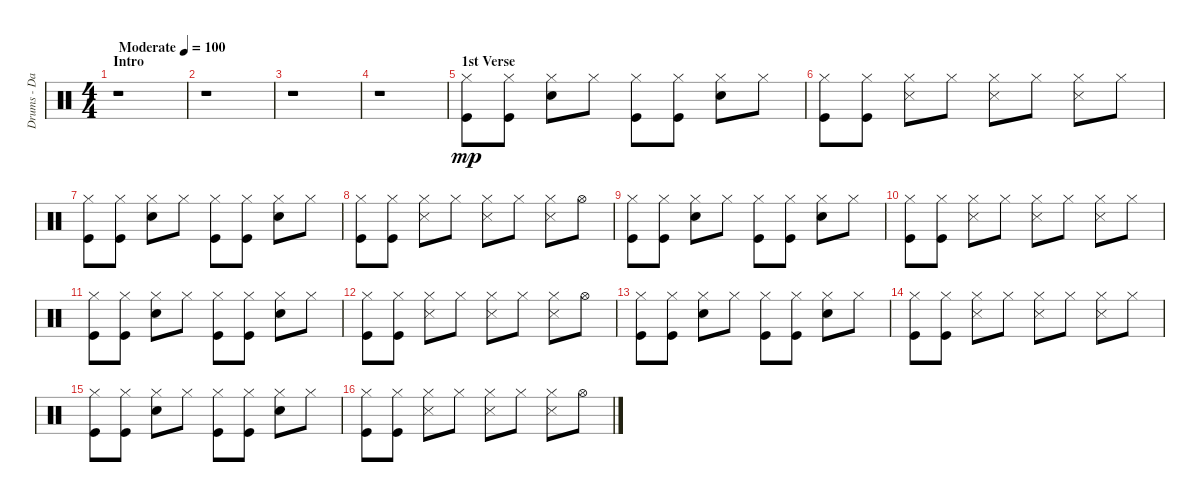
\track ("Drums - Dave Grohl" "Drums - Da") {instrument percussion}
\staff {score}
\articulation defaults
\ts (4 4)
\section ("" "Intro")
\tempo (100 "Moderate")
\clef neutral
\ks c
r.1{dy mp} |
r.1 |
r.1 |
r.1 |
\section ("" "1st Verse")
("Kick (hit)" "Hi-Hat (closed)").8 ("Hi-Hat (closed)" "Kick (hit)").8 ("Hi-Hat (closed)" "Snare (hit) 2").8 "Hi-Hat (closed)".8 ("Kick (hit)" "Hi-Hat (closed)").8 ("Kick (hit)" "Hi-Hat (closed)").8 ("Snare (hit) 2" "Hi-Hat (closed)").8 "Hi-Hat (closed)".8 |
("Kick (hit)" "Hi-Hat (closed)").8 ("Kick (hit)" "Hi-Hat (closed)").8 ("Hi-Hat (closed)" "Snare (side stick) 3").8 "Hi-Hat (closed)".8 ("Hi-Hat (closed)" "Snare (side stick) 3").8 "Hi-Hat (closed)".8 ("Hi-Hat (closed)" "Snare (side stick) 3").8 "Hi-Hat (closed)".8 |
("Kick (hit)" "Hi-Hat (closed)").8 ("Hi-Hat (closed)" "Kick (hit)").8 ("Hi-Hat (closed)" "Snare (hit) 2").8 "Hi-Hat (closed)".8 ("Kick (hit)" "Hi-Hat (closed)").8 ("Kick (hit)" "Hi-Hat (closed)").8 ("Snare (hit) 2" "Hi-Hat (closed)").8 "Hi-Hat (closed)".8 |
("Kick (hit)" "Hi-Hat (closed)").8 ("Kick (hit)" "Hi-Hat (closed)").8 ("Hi-Hat (closed)" "Snare (side stick) 3").8 "Hi-Hat (closed)".8 ("Hi-Hat (closed)" "Snare (side stick) 3").8 "Hi-Hat (closed)".8 ("Hi-Hat (closed)" "Snare (side stick) 3").8 "Hi-Hat (open)".8 |
("Kick (hit)" "Hi-Hat (closed)").8 ("Hi-Hat (closed)" "Kick (hit)").8 ("Hi-Hat (closed)" "Snare (hit) 2").8 "Hi-Hat (closed)".8 ("Kick (hit)" "Hi-Hat (closed)").8 ("Kick (hit)" "Hi-Hat (closed)").8 ("Snare (hit) 2" "Hi-Hat (closed)").8 "Hi-Hat (closed)".8 |
("Kick (hit)" "Hi-Hat (closed)").8 ("Kick (hit)" "Hi-Hat (closed)").8 ("Hi-Hat (closed)" "Snare (side stick) 3").8 "Hi-Hat (closed)".8 ("Hi-Hat (closed)" "Snare (side stick) 3").8 "Hi-Hat (closed)".8 ("Hi-Hat (closed)" "Snare (side stick) 3").8 "Hi-Hat (closed)".8 |
("Kick (hit)" "Hi-Hat (closed)").8 ("Hi-Hat (closed)" "Kick (hit)").8 ("Hi-Hat (closed)" "Snare (hit) 2").8 "Hi-Hat (closed)".8 ("Kick (hit)" "Hi-Hat (closed)").8 ("Kick (hit)" "Hi-Hat (closed)").8 ("Snare (hit) 2" "Hi-Hat (closed)").8 "Hi-Hat (closed)".8 |
("Kick (hit)" "Hi-Hat (closed)").8 ("Kick (hit)" "Hi-Hat (closed)").8 ("Hi-Hat (closed)" "Snare (side stick) 3").8 "Hi-Hat (closed)".8 ("Hi-Hat (closed)" "Snare (side stick) 3").8 "Hi-Hat (closed)".8 ("Hi-Hat (closed)" "Snare (side stick) 3").8 "Hi-Hat (open)".8 |
("Kick (hit)" "Hi-Hat (closed)").8 ("Hi-Hat (closed)" "Kick (hit)").8 ("Hi-Hat (closed)" "Snare (hit) 2").8 "Hi-Hat (closed)".8 ("Kick (hit)" "Hi-Hat (closed)").8 ("Kick (hit)" "Hi-Hat (closed)").8 ("Snare (hit) 2" "Hi-Hat (closed)").8 "Hi-Hat (closed)".8 |
("Kick (hit)" "Hi-Hat (closed)").8 ("Kick (hit)" "Hi-Hat (closed)").8 ("Hi-Hat (closed)" "Snare (side stick) 3").8 "Hi-Hat (closed)".8 ("Hi-Hat (closed)" "Snare (side stick) 3").8 "Hi-Hat (closed)".8 ("Hi-Hat (closed)" "Snare (side stick) 3").8 "Hi-Hat (closed)".8 |
("Kick (hit)" "Hi-Hat (closed)").8 ("Hi-Hat (closed)" "Kick (hit)").8 ("Hi-Hat (closed)" "Snare (hit) 2").8 "Hi-Hat (closed)".8 ("Kick (hit)" "Hi-Hat (closed)").8 ("Kick (hit)" "Hi-Hat (closed)").8 ("Snare (hit) 2" "Hi-Hat (closed)").8 "Hi-Hat (closed)".8 |
("Kick (hit)" "Hi-Hat (closed)").8 ("Kick (hit)" "Hi-Hat (closed)").8 ("Hi-Hat (closed)" "Snare (side stick) 3").8 "Hi-Hat (closed)".8 ("Hi-Hat (closed)" "Snare (side stick) 3").8 "Hi-Hat (closed)".8 ("Hi-Hat (closed)" "Snare (side stick) 3").8 "Hi-Hat (open)".8
